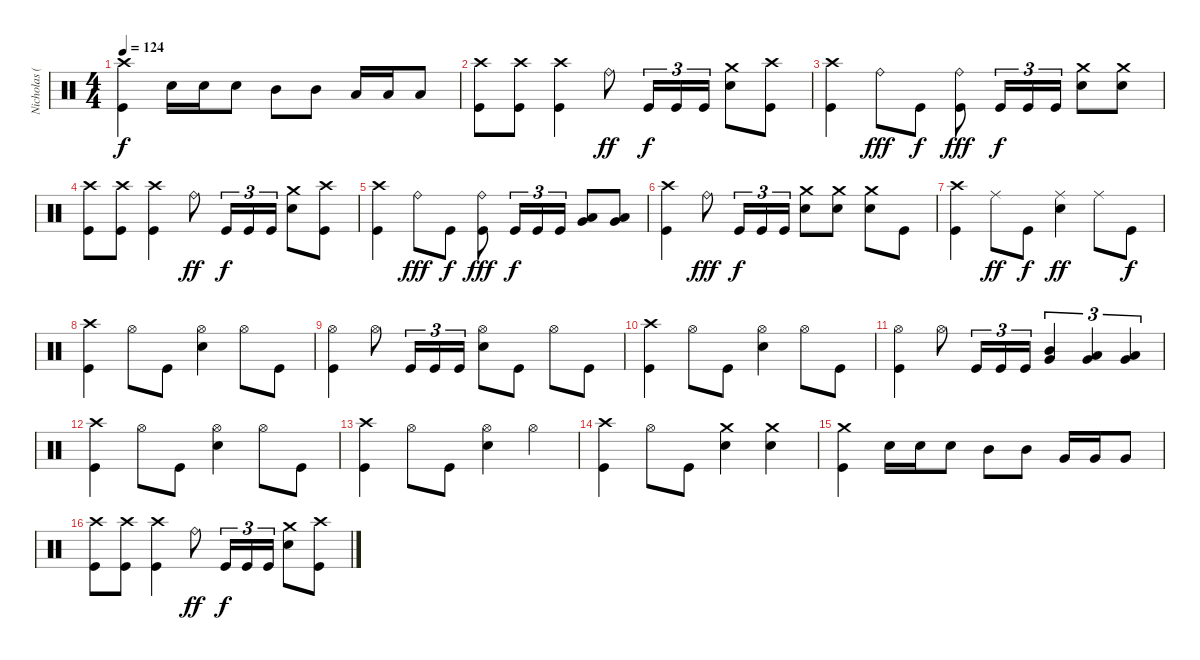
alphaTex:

\track ("Nicholas (Drums)" "Nicholas (") {instrument percussion}
\staff {score}
\articulation defaults
\ts (4 4)
\tempo 124
\clef neutral
\ks c
("Crash high (hit)" "Kick (hit)").4{dy f} "Electric Snare (hit)".16 "Electric Snare (hit)".16 "Electric Snare (hit)".8 "Mid Tom (hit)".8 "Mid Tom (hit)".8 "Low Tom (hit)".16 "Low Tom (hit)".16 "Low Tom (hit)".8 |
("Crash high (hit)" "Kick (hit)").8 ("Crash high (hit)" "Kick (hit)").8 ("Crash high (hit)" "Kick (hit)").4 "Ride (bell)".8{dy ff} "Kick (hit)".16{tu (3 2) dy f} "Kick (hit)".16{tu (3 2)} "Kick (hit)".16{tu (3 2)} ("Crash medium (hit)" "Electric Snare (hit)").8 ("Crash high (hit)" "Kick (hit)").8 |
("Crash high (hit)" "Kick (hit)").4 "Ride (bell)".8{dy fff} "Kick (hit)".8{dy f} ("Ride (bell)" "Kick (hit)").8{dy fff} "Kick (hit)".16{tu (3 2) dy f} "Kick (hit)".16{tu (3 2)} "Kick (hit)".16{tu (3 2)} ("Crash medium (hit)" "Electric Snare (hit)").8 ("Crash medium (hit)" "Electric Snare (hit)").8 |
("Crash high (hit)" "Kick (hit)").8 ("Crash high (hit)" "Kick (hit)").8 ("Crash high (hit)" "Kick (hit)").4 "Ride (bell)".8{dy ff} "Kick (hit)".16{tu (3 2) dy f} "Kick (hit)".16{tu (3 2)} "Kick (hit)".16{tu (3 2)} ("Crash medium (hit)" "Electric Snare (hit)").8 ("Crash high (hit)" "Kick (hit)").8 |
("Crash high (hit)" "Kick (hit)").4 "Ride (bell)".8{dy fff} "Kick (hit)".8{dy f} ("Ride (bell)" "Kick (hit)").8{dy fff} "Kick (hit)".16{tu (3 2) dy f} "Kick (hit)".16{tu (3 2)} "Kick (hit)".16{tu (3 2)} ("Low Tom (hit)" "Very Low Tom (hit)").8{bu 60} ("Low Tom (hit)" "Very Low Tom (hit)").8{bu 60} |
("Crash high (hit)" "Kick (hit)").4 "Ride (bell)".8{dy fff} "Kick (hit)".16{tu (3 2) dy f} "Kick (hit)".16{tu (3 2)} "Kick (hit)".16{tu (3 2)} ("Crash medium (hit)" "Electric Snare (hit)").8 ("Crash medium (hit)" "Electric Snare (hit)").8 ("Crash medium (hit)" "Electric Snare (hit)").8 "Kick (hit)".8 |
("Crash high (hit)" "Kick (hit)").4 "Ride (middle)".8{dy ff} "Kick (hit)".8{dy f} ("Ride (middle)" "Electric Snare (hit)").4{dy ff} "Ride (middle)".8 "Kick (hit)".8{dy f} |
("Crash high (hit)" "Kick (hit)").4 "Hi-Hat (open)".8 "Kick (hit)".8 ("Hi-Hat (open)" "Electric Snare (hit)").4 "Hi-Hat (open)".8 "Kick (hit)".8 |
("Hi-Hat (open)" "Kick (hit)").4 "Hi-Hat (open)".8 "Kick (hit)".16{tu (3 2)} "Kick (hit)".16{tu (3 2)} "Kick (hit)".16{tu (3 2)} ("Hi-Hat (open)" "Electric Snare (hit)").8 "Kick (hit)".8 "Hi-Hat (open)".8 "Kick (hit)".8 |
("Crash high (hit)" "Kick (hit)").4 "Hi-Hat (open)".8 "Kick (hit)".8 ("Hi-Hat (open)" "Electric Snare (hit)").4 "Hi-Hat (open)".8 "Kick (hit)".8 |
("Hi-Hat (open)" "Kick (hit)").4 "Hi-Hat (open)".8 "Kick (hit)".16{tu (3 2)} "Kick (hit)".16{tu (3 2)} "Kick (hit)".16{tu (3 2)} ("Mid Tom (hit)" "Very Low Tom (hit)").4{tu (3 2) bu 60} ("Low Tom (hit)" "Very Low Tom (hit)").4{tu (3 2) bu 60} ("Low Tom (hit)" "Very Low Tom (hit)").4{tu (3 2) bu 60} |
("Crash high (hit)" "Kick (hit)").4 "Hi-Hat (open)".8 "Kick (hit)".8 ("Hi-Hat (open)" "Electric Snare (hit)").4 "Hi-Hat (open)".8 "Kick (hit)".8 |
("Crash high (hit)" "Kick (hit)").4 "Hi-Hat (open)".8 "Kick (hit)".8 ("Hi-Hat (open)" "Electric Snare (hit)").4 "Hi-Hat (open)".4 |
("Crash high (hit)" "Kick (hit)").4 "Hi-Hat (open)".8 "Kick (hit)".8 ("Crash medium (hit)" "Electric Snare (hit)").4 ("Crash medium (hit)" "Electric Snare (hit)").4 |
("Crash medium (hit)" "Kick (hit)").4 "Electric Snare (hit)".16 "Electric Snare (hit)".16 "Electric Snare (hit)".8 "Mid Tom (hit)".8 "Mid Tom (hit)".8 "Very Low Tom (hit)".16 "Very Low Tom (hit)".16 "Very Low Tom (hit)".8 |
("Crash high (hit)" "Kick (hit)").8 ("Crash high (hit)" "Kick (hit)").8 ("Crash high (hit)" "Kick (hit)").4 "Ride (bell)".8{dy ff} "Kick (hit)".16{tu (3 2) dy f} "Kick (hit)".16{tu (3 2)} "Kick (hit)".16{tu (3 2)} ("Crash medium (hit)" "Electric Snare (hit)").8 ("Crash high (hit)" "Kick (hit)").8
